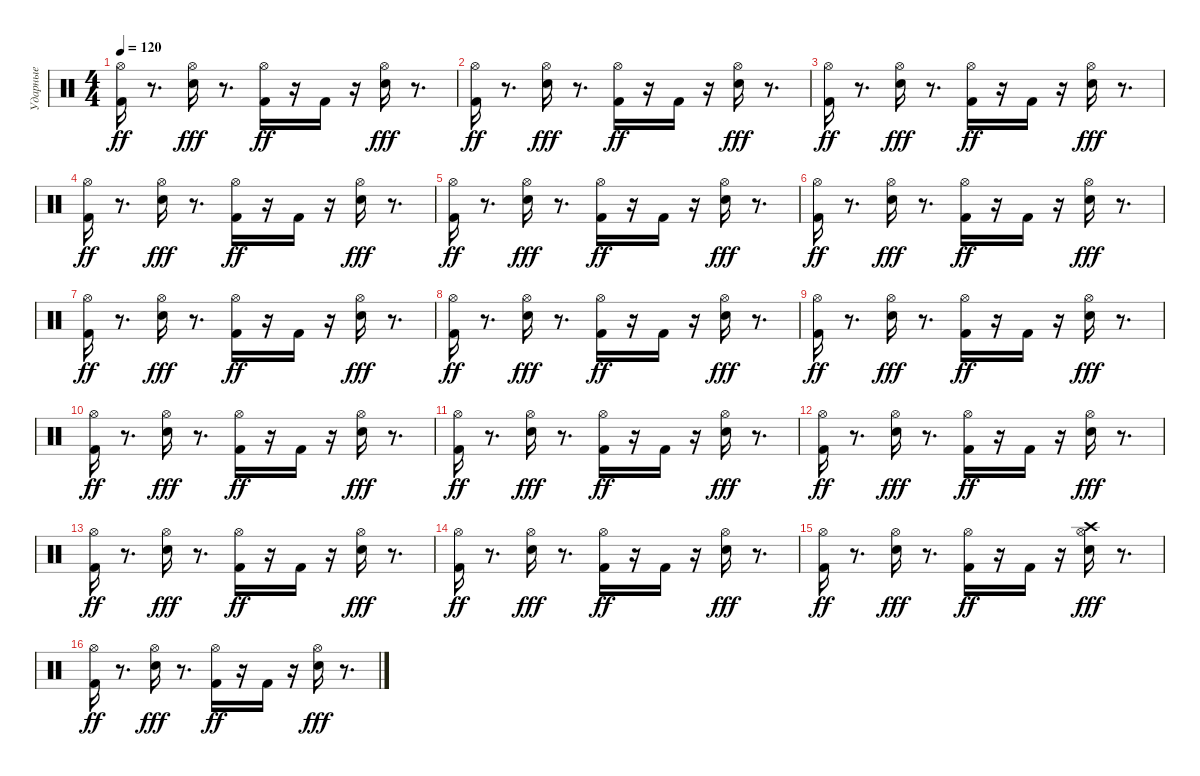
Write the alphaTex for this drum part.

\track ("Ударные" "Ударные") {instrument percussion}
\staff {score}
\articulation defaults
\ts (4 4)
\tempo 120
\clef neutral
\ks c
("Kick (hit) 2" "Hi-Hat (open)").16{dy ff} r.8{d} ("Snare (hit) 2" "Hi-Hat (open)").16{dy fff} r.8{d} ("Kick (hit) 2" "Hi-Hat (open)").16{dy ff} r.16 "Kick (hit) 2".16 r.16 ("Snare (hit) 2" "Hi-Hat (open)").16{dy fff} r.8{d} |
("Kick (hit) 2" "Hi-Hat (open)").16{dy ff} r.8{d} ("Snare (hit) 2" "Hi-Hat (open)").16{dy fff} r.8{d} ("Kick (hit) 2" "Hi-Hat (open)").16{dy ff} r.16 "Kick (hit) 2".16 r.16 ("Snare (hit) 2" "Hi-Hat (open)").16{dy fff} r.8{d} |
("Kick (hit) 2" "Hi-Hat (open)").16{dy ff} r.8{d} ("Snare (hit) 2" "Hi-Hat (open)").16{dy fff} r.8{d} ("Kick (hit) 2" "Hi-Hat (open)").16{dy ff} r.16 "Kick (hit) 2".16 r.16 ("Snare (hit) 2" "Hi-Hat (open)").16{dy fff} r.8{d} |
("Kick (hit) 2" "Hi-Hat (open)").16{dy ff} r.8{d} ("Snare (hit) 2" "Hi-Hat (open)").16{dy fff} r.8{d} ("Kick (hit) 2" "Hi-Hat (open)").16{dy ff} r.16 "Kick (hit) 2".16 r.16 ("Snare (hit) 2" "Hi-Hat (open)").16{dy fff} r.8{d} |
("Kick (hit) 2" "Hi-Hat (open)").16{dy ff} r.8{d} ("Snare (hit) 2" "Hi-Hat (open)").16{dy fff} r.8{d} ("Kick (hit) 2" "Hi-Hat (open)").16{dy ff} r.16 "Kick (hit) 2".16 r.16 ("Snare (hit) 2" "Hi-Hat (open)").16{dy fff} r.8{d} |
("Kick (hit) 2" "Hi-Hat (open)").16{dy ff} r.8{d} ("Snare (hit) 2" "Hi-Hat (open)").16{dy fff} r.8{d} ("Kick (hit) 2" "Hi-Hat (open)").16{dy ff} r.16 "Kick (hit) 2".16 r.16 ("Snare (hit) 2" "Hi-Hat (open)").16{dy fff} r.8{d} |
("Kick (hit) 2" "Hi-Hat (open)").16{dy ff} r.8{d} ("Snare (hit) 2" "Hi-Hat (open)").16{dy fff} r.8{d} ("Kick (hit) 2" "Hi-Hat (open)").16{dy ff} r.16 "Kick (hit) 2".16 r.16 ("Snare (hit) 2" "Hi-Hat (open)").16{dy fff} r.8{d} |
("Kick (hit) 2" "Hi-Hat (open)").16{dy ff} r.8{d} ("Snare (hit) 2" "Hi-Hat (open)").16{dy fff} r.8{d} ("Kick (hit) 2" "Hi-Hat (open)").16{dy ff} r.16 "Kick (hit) 2".16 r.16 ("Snare (hit) 2" "Hi-Hat (open)").16{dy fff} r.8{d} |
("Kick (hit) 2" "Hi-Hat (open)").16{dy ff} r.8{d} ("Snare (hit) 2" "Hi-Hat (open)").16{dy fff} r.8{d} ("Kick (hit) 2" "Hi-Hat (open)").16{dy ff} r.16 "Kick (hit) 2".16 r.16 ("Snare (hit) 2" "Hi-Hat (open)").16{dy fff} r.8{d} |
("Kick (hit) 2" "Hi-Hat (open)").16{dy ff} r.8{d} ("Snare (hit) 2" "Hi-Hat (open)").16{dy fff} r.8{d} ("Kick (hit) 2" "Hi-Hat (open)").16{dy ff} r.16 "Kick (hit) 2".16 r.16 ("Snare (hit) 2" "Hi-Hat (open)").16{dy fff} r.8{d} |
("Kick (hit) 2" "Hi-Hat (open)").16{dy ff} r.8{d} ("Snare (hit) 2" "Hi-Hat (open)").16{dy fff} r.8{d} ("Kick (hit) 2" "Hi-Hat (open)").16{dy ff} r.16 "Kick (hit) 2".16 r.16 ("Snare (hit) 2" "Hi-Hat (open)").16{dy fff} r.8{d} |
("Kick (hit) 2" "Hi-Hat (open)").16{dy ff} r.8{d} ("Snare (hit) 2" "Hi-Hat (open)").16{dy fff} r.8{d} ("Kick (hit) 2" "Hi-Hat (open)").16{dy ff} r.16 "Kick (hit) 2".16 r.16 ("Snare (hit) 2" "Hi-Hat (open)").16{dy fff} r.8{d} |
("Kick (hit) 2" "Hi-Hat (open)").16{dy ff} r.8{d} ("Snare (hit) 2" "Hi-Hat (open)").16{dy fff} r.8{d} ("Kick (hit) 2" "Hi-Hat (open)").16{dy ff} r.16 "Kick (hit) 2".16 r.16 ("Snare (hit) 2" "Hi-Hat (open)").16{dy fff} r.8{d} |
("Kick (hit) 2" "Hi-Hat (open)").16{dy ff} r.8{d} ("Snare (hit) 2" "Hi-Hat (open)").16{dy fff} r.8{d} ("Kick (hit) 2" "Hi-Hat (open)").16{dy ff} r.16 "Kick (hit) 2".16 r.16 ("Snare (hit) 2" "Hi-Hat (open)").16{dy fff} r.8{d} |
("Kick (hit) 2" "Hi-Hat (open)").16{dy ff} r.8{d} ("Snare (hit) 2" "Hi-Hat (open)").16{dy fff} r.8{d} ("Kick (hit) 2" "Hi-Hat (open)").16{dy ff} r.16 "Kick (hit) 2".16 r.16 ("Snare (hit) 2" "Hi-Hat (open)" "Crash high (hit)").16{dy fff} r.8{d} |
("Kick (hit) 2" "Hi-Hat (open)").16{dy ff} r.8{d} ("Snare (hit) 2" "Hi-Hat (open)").16{dy fff} r.8{d} ("Kick (hit) 2" "Hi-Hat (open)").16{dy ff} r.16 "Kick (hit) 2".16 r.16 ("Snare (hit) 2" "Hi-Hat (open)").16{dy fff} r.8{d}
